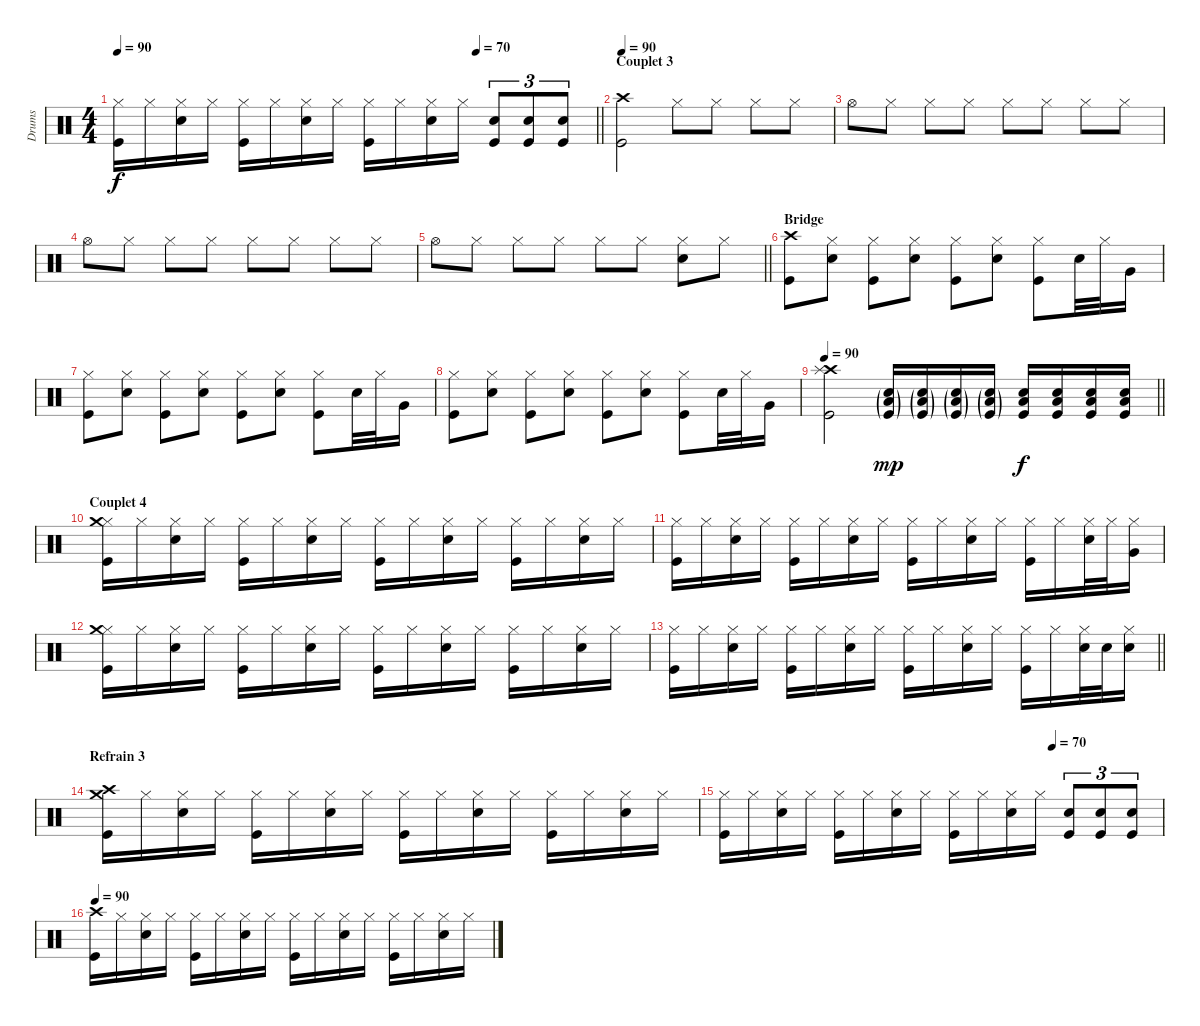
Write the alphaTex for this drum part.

\track ("Drums" "Drums") {instrument percussion}
\staff {score}
\articulation defaults
\ts (4 4)
\tempo 90
\tempo (70 0.75)
\clef neutral
\barLineRight lightlight
\ks c
("Hi-Hat (closed)" "Kick (hit)").16{dy f} "Hi-Hat (closed)".16 ("Hi-Hat (closed)" "Snare (hit) 2").16 "Hi-Hat (closed)".16 ("Hi-Hat (closed)" "Kick (hit)").16 "Hi-Hat (closed)".16 ("Hi-Hat (closed)" "Snare (hit) 2").16 "Hi-Hat (closed)".16 ("Hi-Hat (closed)" "Kick (hit)").16 "Hi-Hat (closed)".16 ("Hi-Hat (closed)" "Snare (hit) 2").16 "Hi-Hat (closed)".16 ("Snare (hit) 2" "Kick (hit)").8{tu (3 2)} ("Snare (hit) 2" "Kick (hit)").8{tu (3 2)} ("Snare (hit) 2" "Kick (hit)").8{tu (3 2)} |
\section ("" "Couplet 3")
\tempo 90
("Crash high (hit)" "Kick (hit)").2 "Hi-Hat (closed)".8 "Hi-Hat (closed)".8 "Hi-Hat (closed)".8 "Hi-Hat (closed)".8 |
"Hi-Hat (open)".8 "Hi-Hat (closed)".8 "Hi-Hat (closed)".8 "Hi-Hat (closed)".8 "Hi-Hat (closed)".8 "Hi-Hat (closed)".8 "Hi-Hat (closed)".8 "Hi-Hat (closed)".8 |
"Hi-Hat (open)".8 "Hi-Hat (closed)".8 "Hi-Hat (closed)".8 "Hi-Hat (closed)".8 "Hi-Hat (closed)".8 "Hi-Hat (closed)".8 "Hi-Hat (closed)".8 "Hi-Hat (closed)".8 |
\barLineRight lightlight "Hi-Hat (open)".8 "Hi-Hat (closed)".8 "Hi-Hat (closed)".8 "Hi-Hat (closed)".8 "Hi-Hat (closed)".8 "Hi-Hat (closed)".8
("Hi-Hat (closed)" "Snare (hit) 2").8 "Hi-Hat (closed)".8 |
\section ("" "Bridge")
("Crash high (hit)" "Kick (hit)").8 ("Hi-Hat (closed)" "Snare (hit) 2").8 ("Hi-Hat (closed)" "Kick (hit)").8 ("Hi-Hat (closed)" "Snare (hit) 2").8 ("Hi-Hat (closed)" "Kick (hit)").8 ("Hi-Hat (closed)" "Snare (hit) 2").8 ("Hi-Hat (closed)" "Kick (hit)").8 "Snare (hit) 2".32 "Hi-Hat (closed)".32 "Very Low Tom (hit)".16 |
("Hi-Hat (closed)" "Kick (hit)").8 ("Hi-Hat (closed)" "Snare (hit) 2").8 ("Hi-Hat (closed)" "Kick (hit)").8 ("Hi-Hat (closed)" "Snare (hit) 2").8 ("Hi-Hat (closed)" "Kick (hit)").8 ("Hi-Hat (closed)" "Snare (hit) 2").8 ("Hi-Hat (closed)" "Kick (hit)").8 "Snare (hit) 2".32 "Hi-Hat (closed)".32 "Very Low Tom (hit)".16 |
("Hi-Hat (closed)" "Kick (hit)").8 ("Hi-Hat (closed)" "Snare (hit) 2").8 ("Hi-Hat (closed)" "Kick (hit)").8 ("Hi-Hat (closed)" "Snare (hit) 2").8 ("Hi-Hat (closed)" "Kick (hit)").8 ("Hi-Hat (closed)" "Snare (hit) 2").8 ("Hi-Hat (closed)" "Kick (hit)").8 "Snare (hit) 2".32 "Hi-Hat (closed)".32 "Very Low Tom (hit)".16 |
\tempo 90
\barLineRight lightlight
("Crash high (hit)" "Splash (hit)" "Kick (hit)").2 ("Snare (hit) 2"{g} "Low Tom (hit)"{g} "Kick (hit)"{g}).16{dy mp} ("Snare (hit) 2"{g} "Low Tom (hit)"{g} "Kick (hit)"{g}).16 ("Snare (hit) 2"{g} "Low Tom (hit)"{g} "Kick (hit)"{g}).16 ("Snare (hit) 2"{g} "Low Tom (hit)"{g} "Kick (hit)"{g}).16 ("Snare (hit) 2" "Low Tom (hit)" "Kick (hit)").16{dy f} ("Snare (hit) 2" "Low Tom (hit)" "Kick (hit)").16 ("Snare (hit) 2" "Low Tom (hit)" "Kick (hit)").16 ("Snare (hit) 2" "Low Tom (hit)" "Kick (hit)").16 |
\section ("" "Couplet 4")
("Hi-Hat (closed)" "Crash medium (hit)" "Kick (hit)").16 "Hi-Hat (closed)".16 ("Hi-Hat (closed)" "Snare (hit) 2").16 "Hi-Hat (closed)".16 ("Hi-Hat (closed)" "Kick (hit)").16 "Hi-Hat (closed)".16 ("Hi-Hat (closed)" "Snare (hit) 2").16 "Hi-Hat (closed)".16 ("Hi-Hat (closed)" "Kick (hit)").16 "Hi-Hat (closed)".16 ("Hi-Hat (closed)" "Snare (hit) 2").16 "Hi-Hat (closed)".16 ("Hi-Hat (closed)" "Kick (hit)").16 "Hi-Hat (closed)".16 ("Hi-Hat (closed)" "Snare (hit) 2").16 "Hi-Hat (closed)".16 |
("Hi-Hat (closed)" "Kick (hit)").16 "Hi-Hat (closed)".16 ("Hi-Hat (closed)" "Snare (hit) 2").16 "Hi-Hat (closed)".16 ("Hi-Hat (closed)" "Kick (hit)").16 "Hi-Hat (closed)".16 ("Hi-Hat (closed)" "Snare (hit) 2").16 "Hi-Hat (closed)".16 ("Hi-Hat (closed)" "Kick (hit)").16 "Hi-Hat (closed)".16 ("Hi-Hat (closed)" "Snare (hit) 2").16 "Hi-Hat (closed)".16 ("Hi-Hat (closed)" "Kick (hit)").16 "Hi-Hat (closed)".16 ("Hi-Hat (closed)" "Snare (hit) 2").32 "Hi-Hat (closed)".32 ("Hi-Hat (closed)" "Very Low Tom (hit)").16 |
("Hi-Hat (closed)" "Crash medium (hit)" "Kick (hit)").16 "Hi-Hat (closed)".16 ("Hi-Hat (closed)" "Snare (hit) 2").16 "Hi-Hat (closed)".16 ("Hi-Hat (closed)" "Kick (hit)").16 "Hi-Hat (closed)".16 ("Hi-Hat (closed)" "Snare (hit) 2").16 "Hi-Hat (closed)".16 ("Hi-Hat (closed)" "Kick (hit)").16 "Hi-Hat (closed)".16 ("Hi-Hat (closed)" "Snare (hit) 2").16 "Hi-Hat (closed)".16 ("Hi-Hat (closed)" "Kick (hit)").16 "Hi-Hat (closed)".16 ("Hi-Hat (closed)" "Snare (hit) 2").16 "Hi-Hat (closed)".16 |
\barLineRight lightlight
("Hi-Hat (closed)" "Kick (hit)").16 "Hi-Hat (closed)".16 ("Hi-Hat (closed)" "Snare (hit) 2").16 "Hi-Hat (closed)".16 ("Hi-Hat (closed)" "Kick (hit)").16 "Hi-Hat (closed)".16 ("Hi-Hat (closed)" "Snare (hit) 2").16 "Hi-Hat (closed)".16 ("Hi-Hat (closed)" "Kick (hit)").16 "Hi-Hat (closed)".16 ("Hi-Hat (closed)" "Snare (hit) 2").16 "Hi-Hat (closed)".16 ("Hi-Hat (closed)" "Kick (hit)").16 "Hi-Hat (closed)".16 ("Hi-Hat (closed)" "Snare (hit) 2").32 "Snare (hit) 2".32 ("Hi-Hat (closed)" "Snare (hit) 2").16 |
\section ("" "Refrain 3")
("Crash high (hit)" "Crash medium (hit)" "Kick (hit)").16 "Hi-Hat (closed)".16 ("Hi-Hat (closed)" "Snare (hit) 2").16 "Hi-Hat (closed)".16 ("Hi-Hat (closed)" "Kick (hit)").16 "Hi-Hat (closed)".16 ("Hi-Hat (closed)" "Snare (hit) 2").16 "Hi-Hat (closed)".16 ("Hi-Hat (closed)" "Kick (hit)").16 "Hi-Hat (closed)".16 ("Hi-Hat (closed)" "Snare (hit) 2").16 "Hi-Hat (closed)".16 ("Hi-Hat (closed)" "Kick (hit)").16 "Hi-Hat (closed)".16 ("Hi-Hat (closed)" "Snare (hit) 2").16 "Hi-Hat (closed)".16 |
\tempo (70 0.75)
("Hi-Hat (closed)" "Kick (hit)").16 "Hi-Hat (closed)".16 ("Hi-Hat (closed)" "Snare (hit) 2").16 "Hi-Hat (closed)".16 ("Hi-Hat (closed)" "Kick (hit)").16 "Hi-Hat (closed)".16 ("Hi-Hat (closed)" "Snare (hit) 2").16 "Hi-Hat (closed)".16 ("Hi-Hat (closed)" "Kick (hit)").16 "Hi-Hat (closed)".16 ("Hi-Hat (closed)" "Snare (hit) 2").16 "Hi-Hat (closed)".16 ("Snare (hit) 2" "Kick (hit)").8{tu (3 2)} ("Snare (hit) 2" "Kick (hit)").8{tu (3 2)} ("Snare (hit) 2" "Kick (hit)").8{tu (3 2)} |
\tempo 90
("Crash high (hit)" "Kick (hit)").16 "Hi-Hat (closed)".16 ("Hi-Hat (closed)" "Snare (hit) 2").16 "Hi-Hat (closed)".16 ("Hi-Hat (closed)" "Kick (hit)").16 "Hi-Hat (closed)".16 ("Hi-Hat (closed)" "Snare (hit) 2").16 "Hi-Hat (closed)".16 ("Hi-Hat (closed)" "Kick (hit)").16 "Hi-Hat (closed)".16 ("Hi-Hat (closed)" "Snare (hit) 2").16 "Hi-Hat (closed)".16 ("Hi-Hat (closed)" "Kick (hit)").16 "Hi-Hat (closed)".16 ("Hi-Hat (closed)" "Snare (hit) 2").16 "Hi-Hat (closed)".16
